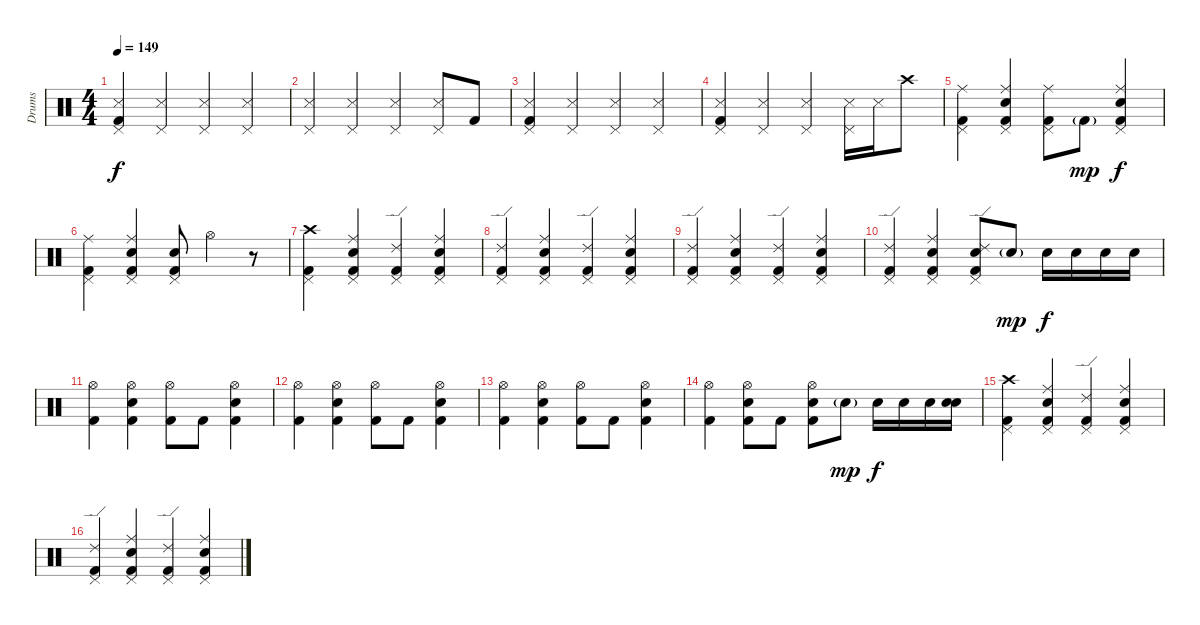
\track ("Drums" "Drums") {instrument percussion}
\staff {score}
\articulation defaults
\ts (4 4)
\tempo 149
\clef neutral
\ks c
("Snare (side stick) 3" "Kick (hit) 2" "Pedal Hi-Hat (hit)").4{dy f} ("Snare (side stick) 3" "Pedal Hi-Hat (hit)").4 ("Snare (side stick) 3" "Pedal Hi-Hat (hit)").4 ("Snare (side stick) 3" "Pedal Hi-Hat (hit)").4 |
("Snare (side stick) 3" "Pedal Hi-Hat (hit)").4 ("Snare (side stick) 3" "Pedal Hi-Hat (hit)").4 ("Snare (side stick) 3" "Pedal Hi-Hat (hit)").4 ("Snare (side stick) 3" "Pedal Hi-Hat (hit)").8 "Kick (hit) 2".8 |
("Snare (side stick) 3" "Kick (hit) 2" "Pedal Hi-Hat (hit)").4 ("Snare (side stick) 3" "Pedal Hi-Hat (hit)").4 ("Snare (side stick) 3" "Pedal Hi-Hat (hit)").4 ("Snare (side stick) 3" "Pedal Hi-Hat (hit)").4 |
("Snare (side stick) 3" "Kick (hit) 2" "Pedal Hi-Hat (hit)").4 ("Snare (side stick) 3" "Pedal Hi-Hat (hit)").4 ("Snare (side stick) 3" "Pedal Hi-Hat (hit)").4 ("Snare (side stick) 3" "Pedal Hi-Hat (hit)").16 "Snare (side stick) 3".16 "Crash high (hit)".8 |
("Ride (middle)" "Kick (hit) 2" "Pedal Hi-Hat (hit)").4 ("Ride (middle)" "Electric Snare (hit)" "Kick (hit) 2" "Pedal Hi-Hat (hit)").4 ("Ride (middle)" "Kick (hit) 2" "Pedal Hi-Hat (hit)").8 "Kick (hit) 2"{g}.8{dy mp} ("Ride (middle)" "Electric Snare (hit)" "Kick (hit) 2" "Pedal Hi-Hat (hit)").4{dy f} |
("Ride (middle)" "Kick (hit) 2" "Pedal Hi-Hat (hit)").4 ("Ride (middle)" "Electric Snare (hit)" "Kick (hit) 2" "Pedal Hi-Hat (hit)").4 ("Electric Snare (hit)" "Kick (hit) 2" "Pedal Hi-Hat (hit)").8 "Hi-Hat (open)".4 r.8 |
("Crash high (hit)" "Kick (hit) 2" "Pedal Hi-Hat (hit)").4 ("Ride (middle)" "Electric Snare (hit)" "Kick (hit) 2" "Pedal Hi-Hat (hit)").4 ("Ride (edge) 2" "Kick (hit) 2" "Pedal Hi-Hat (hit)").4 ("Ride (middle)" "Electric Snare (hit)" "Kick (hit) 2" "Pedal Hi-Hat (hit)").4 |
("Ride (edge) 2" "Kick (hit) 2" "Pedal Hi-Hat (hit)").4 ("Ride (middle)" "Electric Snare (hit)" "Kick (hit) 2" "Pedal Hi-Hat (hit)").4 ("Ride (edge) 2" "Kick (hit) 2" "Pedal Hi-Hat (hit)").4 ("Ride (middle)" "Electric Snare (hit)" "Kick (hit) 2" "Pedal Hi-Hat (hit)").4 |
("Ride (edge) 2" "Kick (hit) 2" "Pedal Hi-Hat (hit)").4 ("Ride (middle)" "Electric Snare (hit)" "Kick (hit) 2" "Pedal Hi-Hat (hit)").4 ("Ride (edge) 2" "Kick (hit) 2" "Pedal Hi-Hat (hit)").4 ("Ride (middle)" "Electric Snare (hit)" "Kick (hit) 2" "Pedal Hi-Hat (hit)").4 |
("Ride (edge) 2" "Kick (hit) 2" "Pedal Hi-Hat (hit)").4 ("Ride (middle)" "Electric Snare (hit)" "Kick (hit) 2" "Pedal Hi-Hat (hit)").4 ("Ride (edge) 2" "Electric Snare (hit)" "Kick (hit) 2" "Pedal Hi-Hat (hit)").8 "Electric Snare (hit)"{g}.8{dy mp} "Electric Snare (hit)".16{dy f} "Electric Snare (hit)".16 "Electric Snare (hit)".16 "Electric Snare (hit)".16 |
("Hi-Hat (open)" "Kick (hit) 2").4 ("Hi-Hat (open)" "Electric Snare (hit)" "Kick (hit) 2").4 ("Hi-Hat (open)" "Kick (hit) 2").8 "Kick (hit) 2".8 ("Hi-Hat (open)" "Electric Snare (hit)" "Kick (hit) 2").4 |
("Hi-Hat (open)" "Kick (hit) 2").4 ("Hi-Hat (open)" "Electric Snare (hit)" "Kick (hit) 2").4 ("Hi-Hat (open)" "Kick (hit) 2").8 "Kick (hit) 2".8 ("Hi-Hat (open)" "Electric Snare (hit)" "Kick (hit) 2").4 |
("Hi-Hat (open)" "Kick (hit) 2").4 ("Hi-Hat (open)" "Electric Snare (hit)" "Kick (hit) 2").4 ("Hi-Hat (open)" "Kick (hit) 2").8 "Kick (hit) 2".8 ("Hi-Hat (open)" "Electric Snare (hit)" "Kick (hit) 2").4 |
("Hi-Hat (open)" "Kick (hit) 2").4 ("Hi-Hat (open)" "Electric Snare (hit)" "Kick (hit) 2").8 "Kick (hit) 2".8 ("Hi-Hat (open)" "Electric Snare (hit)" "Kick (hit) 2").8 "Electric Snare (hit)"{g}.8{dy mp} "Electric Snare (hit)".16{dy f} "Electric Snare (hit)".16 "Electric Snare (hit)".16 ("Electric Snare (hit)" "Snare (hit) 2").16 |
("Crash high (hit)" "Kick (hit) 2" "Pedal Hi-Hat (hit)").4 ("Ride (middle)" "Electric Snare (hit)" "Kick (hit) 2" "Pedal Hi-Hat (hit)").4 ("Ride (edge) 2" "Kick (hit) 2" "Pedal Hi-Hat (hit)").4 ("Ride (middle)" "Electric Snare (hit)" "Kick (hit) 2" "Pedal Hi-Hat (hit)").4 |
("Ride (edge) 2" "Kick (hit) 2" "Pedal Hi-Hat (hit)").4 ("Ride (middle)" "Electric Snare (hit)" "Kick (hit) 2" "Pedal Hi-Hat (hit)").4 ("Ride (edge) 2" "Kick (hit) 2" "Pedal Hi-Hat (hit)").4 ("Ride (middle)" "Electric Snare (hit)" "Kick (hit) 2" "Pedal Hi-Hat (hit)").4
